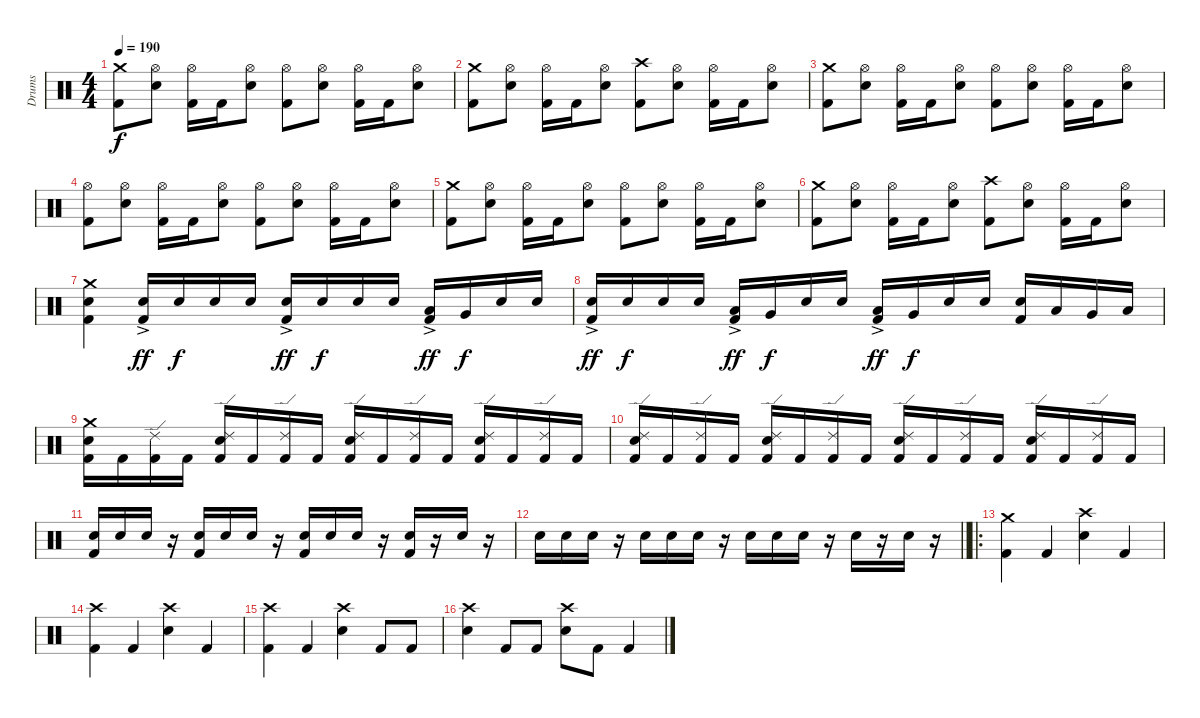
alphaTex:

\track ("Drums" "Drums") {instrument percussion}
\staff {score}
\articulation defaults
\ts (4 4)
\tempo 190
\clef neutral
\ks c
("Crash medium (hit)" "Kick (hit) 2").8{dy f} ("Hi-Hat (open)" "Electric Snare (hit)").8 ("Hi-Hat (open)" "Kick (hit) 2").16 "Kick (hit) 2".16 ("Hi-Hat (open)" "Electric Snare (hit)").8 ("Hi-Hat (open)" "Kick (hit) 2").8 ("Hi-Hat (open)" "Electric Snare (hit)").8 ("Hi-Hat (open)" "Kick (hit) 2").16 "Kick (hit) 2".16 ("Hi-Hat (open)" "Electric Snare (hit)").8 |
("Crash medium (hit)" "Kick (hit) 2").8 ("Hi-Hat (open)" "Electric Snare (hit)").8 ("Hi-Hat (open)" "Kick (hit) 2").16 "Kick (hit) 2".16 ("Hi-Hat (open)" "Electric Snare (hit)").8 ("Crash high (hit)" "Kick (hit) 2").8 ("Hi-Hat (open)" "Electric Snare (hit)").8 ("Hi-Hat (open)" "Kick (hit) 2").16 "Kick (hit) 2".16 ("Hi-Hat (open)" "Electric Snare (hit)").8 |
("Crash medium (hit)" "Kick (hit) 2").8 ("Hi-Hat (open)" "Electric Snare (hit)").8 ("Hi-Hat (open)" "Kick (hit) 2").16 "Kick (hit) 2".16 ("Hi-Hat (open)" "Electric Snare (hit)").8 ("Hi-Hat (open)" "Kick (hit) 2").8 ("Hi-Hat (open)" "Electric Snare (hit)").8 ("Hi-Hat (open)" "Kick (hit) 2").16 "Kick (hit) 2".16 ("Hi-Hat (open)" "Electric Snare (hit)").8 |
("Hi-Hat (open)" "Kick (hit) 2").8 ("Hi-Hat (open)" "Electric Snare (hit)").8 ("Hi-Hat (open)" "Kick (hit) 2").16 "Kick (hit) 2".16 ("Hi-Hat (open)" "Electric Snare (hit)").8 ("Hi-Hat (open)" "Kick (hit) 2").8 ("Hi-Hat (open)" "Electric Snare (hit)").8 ("Hi-Hat (open)" "Kick (hit) 2").16 "Kick (hit) 2".16 ("Hi-Hat (open)" "Electric Snare (hit)").8 |
("Crash medium (hit)" "Kick (hit) 2").8 ("Hi-Hat (open)" "Electric Snare (hit)").8 ("Hi-Hat (open)" "Kick (hit) 2").16 "Kick (hit) 2".16 ("Hi-Hat (open)" "Electric Snare (hit)").8 ("Hi-Hat (open)" "Kick (hit) 2").8 ("Hi-Hat (open)" "Electric Snare (hit)").8 ("Hi-Hat (open)" "Kick (hit) 2").16 "Kick (hit) 2".16 ("Hi-Hat (open)" "Electric Snare (hit)").8 |
("Crash medium (hit)" "Kick (hit) 2").8 ("Hi-Hat (open)" "Electric Snare (hit)").8 ("Hi-Hat (open)" "Kick (hit) 2").16 "Kick (hit) 2".16 ("Hi-Hat (open)" "Electric Snare (hit)").8 ("Crash high (hit)" "Kick (hit) 2").8 ("Hi-Hat (open)" "Electric Snare (hit)").8 ("Hi-Hat (open)" "Kick (hit) 2").16 "Kick (hit) 2".16 ("Hi-Hat (open)" "Electric Snare (hit)").8 |
("Crash medium (hit)" "Electric Snare (hit)" "Kick (hit) 2").4 ("Electric Snare (hit)"{ac} "Kick (hit) 2").16{dy ff} "Electric Snare (hit)".16{dy f} "Electric Snare (hit)".16 "Electric Snare (hit)".16 ("Electric Snare (hit)"{ac} "Kick (hit) 2").16{dy ff} "Electric Snare (hit)".16{dy f} "Electric Snare (hit)".16 "Electric Snare (hit)".16 ("Low Floor Tom (hit)"{ac} "Kick (hit) 2").16{dy ff} "Very Low Tom (hit)".16{dy f} "Electric Snare (hit)".16 "Electric Snare (hit)".16 |
("Electric Snare (hit)"{ac} "Kick (hit) 2").16{dy ff} "Electric Snare (hit)".16{dy f} "Electric Snare (hit)".16 "Electric Snare (hit)".16 ("Low Floor Tom (hit)"{ac} "Kick (hit) 2").16{dy ff} "Very Low Tom (hit)".16{dy f} "Electric Snare (hit)".16 "Electric Snare (hit)".16 ("Low Floor Tom (hit)"{ac} "Kick (hit) 2").16{dy ff} "Very Low Tom (hit)".16{dy f} "Electric Snare (hit)".16 "Electric Snare (hit)".16 ("Electric Snare (hit)" "Kick (hit) 2").16 "Low Tom (hit)".16 "Very Low Tom (hit)".16 "Low Floor Tom (hit)".16 |
("Crash medium (hit)" "Electric Snare (hit)" "Kick (hit) 2").16 "Kick (hit) 2".16 ("Ride (edge) 2" "Kick (hit) 2").16 "Kick (hit) 2".16 ("Ride (edge) 2" "Electric Snare (hit)" "Kick (hit) 2").16 "Kick (hit) 2".16 ("Ride (edge) 2" "Kick (hit) 2").16 "Kick (hit) 2".16 ("Ride (edge) 2" "Electric Snare (hit)" "Kick (hit) 2").16 "Kick (hit) 2".16 ("Ride (edge) 2" "Kick (hit) 2").16 "Kick (hit) 2".16 ("Ride (edge) 2" "Electric Snare (hit)" "Kick (hit) 2").16 "Kick (hit) 2".16 ("Ride (edge) 2" "Kick (hit) 2").16 "Kick (hit) 2".16 |
("Ride (edge) 2" "Electric Snare (hit)" "Kick (hit) 2").16 "Kick (hit) 2".16 ("Ride (edge) 2" "Kick (hit) 2").16 "Kick (hit) 2".16 ("Ride (edge) 2" "Electric Snare (hit)" "Kick (hit) 2").16 "Kick (hit) 2".16 ("Ride (edge) 2" "Kick (hit) 2").16 "Kick (hit) 2".16 ("Ride (edge) 2" "Electric Snare (hit)" "Kick (hit) 2").16 "Kick (hit) 2".16 ("Ride (edge) 2" "Kick (hit) 2").16 "Kick (hit) 2".16 ("Ride (edge) 2" "Electric Snare (hit)" "Kick (hit) 2").16 "Kick (hit) 2".16 ("Ride (edge) 2" "Kick (hit) 2").16 "Kick (hit) 2".16 |
("Electric Snare (hit)" "Kick (hit) 2").16 "Electric Snare (hit)".16 "Electric Snare (hit)".16 r.16 ("Electric Snare (hit)" "Kick (hit) 2").16 "Electric Snare (hit)".16 "Electric Snare (hit)".16 r.16 ("Electric Snare (hit)" "Kick (hit) 2").16 "Electric Snare (hit)".16 "Electric Snare (hit)".16 r.16 ("Electric Snare (hit)" "Kick (hit) 2").16 r.16 "Electric Snare (hit)".16 r.16 |
\barLineRight lightlight "Electric Snare (hit)".16 "Electric Snare (hit)".16 "Electric Snare (hit)".16
r.16 "Electric Snare (hit)".16 "Electric Snare (hit)".16 "Electric Snare (hit)".16 r.16 "Electric Snare (hit)".16 "Electric Snare (hit)".16 "Electric Snare (hit)".16 r.16 "Electric Snare (hit)".16 r.16 "Electric Snare (hit)".16 r.16 |
\ro
("Crash medium (hit)" "Kick (hit) 2").4 "Kick (hit) 2".4 ("Crash high (hit)" "Electric Snare (hit)").4 "Kick (hit) 2".4 |
("Crash high (hit)" "Kick (hit) 2").4 "Kick (hit) 2".4 ("Crash high (hit)" "Electric Snare (hit)").4 "Kick (hit) 2".4 |
("Crash high (hit)" "Kick (hit) 2").4 "Kick (hit) 2".4 ("Crash high (hit)" "Electric Snare (hit)").4 "Kick (hit) 2".8 "Kick (hit) 2".8 |
("Crash high (hit)" "Electric Snare (hit)").4 "Kick (hit) 2".8 "Kick (hit) 2".8 ("Crash high (hit)" "Electric Snare (hit)").8 "Kick (hit) 2".8 "Kick (hit) 2".4
